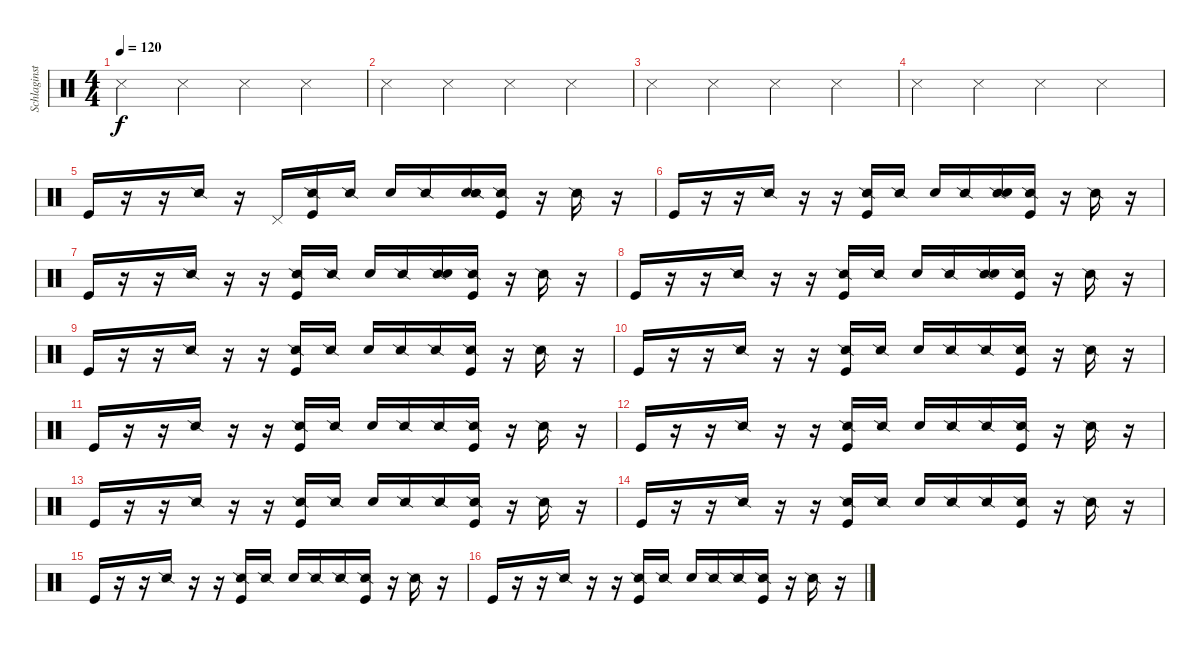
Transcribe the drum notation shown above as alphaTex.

\track ("Schlaginstrumente - Auswahl" "Schlaginst") {instrument percussion}
\staff {score}
\articulation defaults
\ts (4 4)
\tempo 120
\clef neutral
\ks c "Snare (side stick) 3".4{dy f} "Snare (side stick) 3".4 "Snare (side stick) 3".4 "Snare (side stick) 3".4
|
"Snare (side stick) 3".4 "Snare (side stick) 3".4 "Snare (side stick) 3".4 "Snare (side stick) 3".4 |
"Snare (side stick) 3".4 "Snare (side stick) 3".4 "Snare (side stick) 3".4 "Snare (side stick) 3".4 |
"Snare (side stick) 3".4 "Snare (side stick) 3".4 "Snare (side stick) 3".4 "Snare (side stick) 3".4 |
"Kick (hit)".16 r.16 r.16 "Snare (side stick) 2".16 r.16 "Pedal Hi-Hat (hit)".16 ("Snare (side stick) 2" "Kick (hit)").16 "Snare (side stick) 2".16 "Snare (hit) 2".16 "Snare (side stick) 2".16 ("Metronome (bell)" "Snare (side stick) 2").16 ("Snare (side stick) 2" "Kick (hit)").16 r.16 "Snare (side stick) 2".16 r.16 |
"Kick (hit)".16 r.16 r.16 "Snare (side stick) 2".16 r.16 r.16 ("Snare (side stick) 2" "Kick (hit)").16 "Snare (side stick) 2".16 "Snare (hit) 2".16 "Snare (side stick) 2".16 ("Snare (side stick) 2" "Snare (hit) 2").16 ("Snare (side stick) 2" "Kick (hit)").16 r.16 "Snare (side stick) 2".16 r.16 |
"Kick (hit)".16 r.16 r.16 "Snare (side stick) 2".16 r.16 r.16 ("Snare (side stick) 2" "Kick (hit)").16 "Snare (side stick) 2".16 "Snare (hit) 2".16 "Snare (side stick) 2".16 ("Snare (side stick) 2" "Snare (hit) 2").16 ("Snare (side stick) 2" "Kick (hit)").16 r.16 "Snare (side stick) 2".16 r.16 |
"Kick (hit)".16 r.16 r.16 "Snare (side stick) 2".16 r.16 r.16 ("Snare (side stick) 2" "Kick (hit)").16 "Snare (side stick) 2".16 "Snare (hit) 2".16 "Snare (side stick) 2".16 ("Snare (side stick) 2" "Snare (hit) 2").16 ("Snare (side stick) 2" "Kick (hit)").16 r.16 "Snare (side stick) 2".16 r.16 |
"Kick (hit)".16 r.16 r.16 "Snare (side stick) 2".16 r.16 r.16 ("Snare (side stick) 2" "Kick (hit)").16 "Snare (side stick) 2".16 "Snare (hit) 2".16 "Snare (side stick) 2".16 "Snare (side stick) 2".16 ("Snare (side stick) 2" "Kick (hit)").16 r.16 "Snare (side stick) 2".16 r.16 |
"Kick (hit)".16 r.16 r.16 "Snare (side stick) 2".16 r.16 r.16 ("Snare (side stick) 2" "Kick (hit)").16 "Snare (side stick) 2".16 "Snare (hit) 2".16 "Snare (side stick) 2".16 "Snare (side stick) 2".16 ("Snare (side stick) 2" "Kick (hit)").16 r.16 "Snare (side stick) 2".16 r.16 |
"Kick (hit)".16 r.16 r.16 "Snare (side stick) 2".16 r.16 r.16 ("Snare (side stick) 2" "Kick (hit)").16 "Snare (side stick) 2".16 "Snare (hit) 2".16 "Snare (side stick) 2".16 "Snare (side stick) 2".16 ("Snare (side stick) 2" "Kick (hit)").16 r.16 "Snare (side stick) 2".16 r.16 |
"Kick (hit)".16 r.16 r.16 "Snare (side stick) 2".16 r.16 r.16 ("Snare (side stick) 2" "Kick (hit)").16 "Snare (side stick) 2".16 "Snare (hit) 2".16 "Snare (side stick) 2".16 "Snare (side stick) 2".16 ("Snare (side stick) 2" "Kick (hit)").16 r.16 "Snare (side stick) 2".16 r.16 |
"Kick (hit)".16 r.16 r.16 "Snare (side stick) 2".16 r.16 r.16 ("Snare (side stick) 2" "Kick (hit)").16 "Snare (side stick) 2".16 "Snare (hit) 2".16 "Snare (side stick) 2".16 "Snare (side stick) 2".16 ("Snare (side stick) 2" "Kick (hit)").16 r.16 "Snare (side stick) 2".16 r.16 |
"Kick (hit)".16 r.16 r.16 "Snare (side stick) 2".16 r.16 r.16 ("Snare (side stick) 2" "Kick (hit)").16 "Snare (side stick) 2".16 "Snare (hit) 2".16 "Snare (side stick) 2".16 "Snare (side stick) 2".16 ("Snare (side stick) 2" "Kick (hit)").16 r.16 "Snare (side stick) 2".16 r.16 |
"Kick (hit)".16 r.16 r.16 "Snare (side stick) 2".16 r.16 r.16 ("Snare (side stick) 2" "Kick (hit)").16 "Snare (side stick) 2".16 "Snare (hit) 2".16 "Snare (side stick) 2".16 "Snare (side stick) 2".16 ("Snare (side stick) 2" "Kick (hit)").16 r.16 "Snare (side stick) 2".16 r.16 |
"Kick (hit)".16 r.16 r.16 "Snare (side stick) 2".16 r.16 r.16 ("Snare (side stick) 2" "Kick (hit)").16 "Snare (side stick) 2".16 "Snare (hit) 2".16 "Snare (side stick) 2".16 "Snare (side stick) 2".16 ("Snare (side stick) 2" "Kick (hit)").16 r.16 "Snare (side stick) 2".16 r.16
